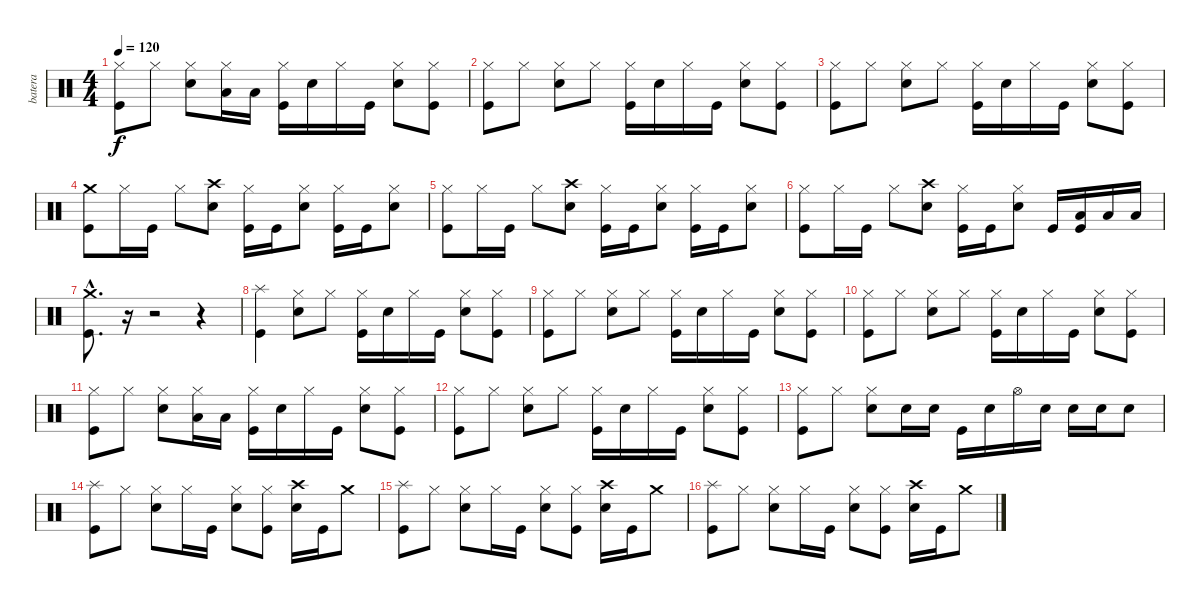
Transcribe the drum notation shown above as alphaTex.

\track ("batera" "batera") {instrument percussion}
\staff {score}
\articulation defaults
\ts (4 4)
\tempo 120
\clef neutral
\ks c
("Hi-Hat (closed)" "Kick (hit)").8{dy f} "Hi-Hat (closed)".8 ("Hi-Hat (closed)" "Snare (hit) 2").8 ("Hi-Hat (closed)" "Low Tom (hit)").16 "Low Tom (hit)".16 ("Hi-Hat (closed)" "Kick (hit)").16 "Snare (hit) 2".16 "Hi-Hat (closed)".16 "Kick (hit)".16 ("Hi-Hat (closed)" "Snare (hit) 2").8 ("Hi-Hat (closed)" "Kick (hit)").8 |
("Hi-Hat (closed)" "Kick (hit)").8 "Hi-Hat (closed)".8 ("Hi-Hat (closed)" "Snare (hit) 2").8 "Hi-Hat (closed)".8 ("Hi-Hat (closed)" "Kick (hit)").16 "Snare (hit) 2".16 "Hi-Hat (closed)".16 "Kick (hit)".16 ("Hi-Hat (closed)" "Snare (hit) 2").8 ("Hi-Hat (closed)" "Kick (hit)").8 |
("Hi-Hat (closed)" "Kick (hit)").8 "Hi-Hat (closed)".8 ("Hi-Hat (closed)" "Snare (hit) 2").8 "Hi-Hat (closed)".8 ("Hi-Hat (closed)" "Kick (hit)").16 "Snare (hit) 2".16 "Hi-Hat (closed)".16 "Kick (hit)".16 ("Hi-Hat (closed)" "Snare (hit) 2").8 ("Hi-Hat (closed)" "Kick (hit)").8 |
("Crash medium (hit)" "Kick (hit)").8 "Hi-Hat (closed)".16 "Kick (hit)".16 "Hi-Hat (closed)".8 ("Crash high (hit)" "Snare (hit) 2").8 ("Hi-Hat (closed)" "Kick (hit)").16 "Kick (hit)".16 ("Hi-Hat (closed)" "Snare (hit) 2").8 ("Hi-Hat (closed)" "Kick (hit)").16 "Kick (hit)".16 ("Hi-Hat (closed)" "Snare (hit) 2").8 |
("Hi-Hat (closed)" "Kick (hit)").8 "Hi-Hat (closed)".16 "Kick (hit)".16 "Hi-Hat (closed)".8 ("Crash high (hit)" "Snare (hit) 2").8 ("Hi-Hat (closed)" "Kick (hit)").16 "Kick (hit)".16 ("Hi-Hat (closed)" "Snare (hit) 2").8 ("Hi-Hat (closed)" "Kick (hit)").16 "Kick (hit)".16 ("Hi-Hat (closed)" "Snare (hit) 2").8 |
("Hi-Hat (closed)" "Kick (hit)").8 "Hi-Hat (closed)".16 "Kick (hit)".16 "Hi-Hat (closed)".8 ("Crash high (hit)" "Snare (hit) 2").8 ("Hi-Hat (closed)" "Kick (hit)").16 "Kick (hit)".16 ("Hi-Hat (closed)" "Snare (hit) 2").8 "Kick (hit)".16 ("Low Tom (hit)" "Kick (hit)").16 "Low Tom (hit)".16 "Low Tom (hit)".16 |
("Crash medium (hit)"{hac} "Kick (hit)"{hac}).8{d} r.16 r.2 r.4 |
("Splash (hit)" "Kick (hit)").4 ("Hi-Hat (closed)" "Snare (hit) 2").8 "Hi-Hat (closed)".8 ("Hi-Hat (closed)" "Kick (hit)").16 "Snare (hit) 2".16 "Hi-Hat (closed)".16 "Kick (hit)".16 ("Hi-Hat (closed)" "Snare (hit) 2").8 ("Hi-Hat (closed)" "Kick (hit)").8 |
("Hi-Hat (closed)" "Kick (hit)").8 "Hi-Hat (closed)".8 ("Hi-Hat (closed)" "Snare (hit) 2").8 "Hi-Hat (closed)".8 ("Hi-Hat (closed)" "Kick (hit)").16 "Snare (hit) 2".16 "Hi-Hat (closed)".16 "Kick (hit)".16 ("Hi-Hat (closed)" "Snare (hit) 2").8 ("Hi-Hat (closed)" "Kick (hit)").8 |
("Hi-Hat (closed)" "Kick (hit)").8 "Hi-Hat (closed)".8 ("Hi-Hat (closed)" "Snare (hit) 2").8 "Hi-Hat (closed)".8 ("Hi-Hat (closed)" "Kick (hit)").16 "Snare (hit) 2".16 "Hi-Hat (closed)".16 "Kick (hit)".16 ("Hi-Hat (closed)" "Snare (hit) 2").8 ("Hi-Hat (closed)" "Kick (hit)").8 |
("Hi-Hat (closed)" "Kick (hit)").8 "Hi-Hat (closed)".8 ("Hi-Hat (closed)" "Snare (hit) 2").8 ("Hi-Hat (closed)" "Low Tom (hit)").16 "Low Tom (hit)".16 ("Hi-Hat (closed)" "Kick (hit)").16 "Snare (hit) 2".16 "Hi-Hat (closed)".16 "Kick (hit)".16 ("Hi-Hat (closed)" "Snare (hit) 2").8 ("Hi-Hat (closed)" "Kick (hit)").8 |
("Hi-Hat (closed)" "Kick (hit)").8 "Hi-Hat (closed)".8 ("Hi-Hat (closed)" "Snare (hit) 2").8 "Hi-Hat (closed)".8 ("Hi-Hat (closed)" "Kick (hit)").16 "Snare (hit) 2".16 "Hi-Hat (closed)".16 "Kick (hit)".16 ("Hi-Hat (closed)" "Snare (hit) 2").8 ("Hi-Hat (closed)" "Kick (hit)").8 |
("Hi-Hat (closed)" "Kick (hit)").8 "Hi-Hat (closed)".8 ("Hi-Hat (closed)" "Snare (hit) 2").8 "Snare (hit) 2".16 "Snare (hit) 2".16 "Kick (hit)".16 "Snare (hit) 2".16 "Hi-Hat (open)".16 "Snare (hit) 2".16 "Snare (hit) 2".16 "Snare (hit) 2".16 "Snare (hit) 2".8 |
("Splash (hit)" "Kick (hit)").8 "Hi-Hat (closed)".8 ("Hi-Hat (closed)" "Snare (hit) 2").8 "Hi-Hat (closed)".16 "Kick (hit)".16 ("Hi-Hat (closed)" "Snare (hit) 2").8 ("Hi-Hat (closed)" "Kick (hit)").8 ("Crash high (hit)" "Snare (hit) 2").16 "Kick (hit)".16 "Crash medium (hit)".8 |
("Splash (hit)" "Kick (hit)").8 "Hi-Hat (closed)".8 ("Hi-Hat (closed)" "Snare (hit) 2").8 "Hi-Hat (closed)".16 "Kick (hit)".16 ("Hi-Hat (closed)" "Snare (hit) 2").8 ("Hi-Hat (closed)" "Kick (hit)").8 ("Crash high (hit)" "Snare (hit) 2").16 "Kick (hit)".16 "Crash medium (hit)".8 |
("Splash (hit)" "Kick (hit)").8 "Hi-Hat (closed)".8 ("Hi-Hat (closed)" "Snare (hit) 2").8 "Hi-Hat (closed)".16 "Kick (hit)".16 ("Hi-Hat (closed)" "Snare (hit) 2").8 ("Hi-Hat (closed)" "Kick (hit)").8 ("Crash high (hit)" "Snare (hit) 2").16 "Kick (hit)".16 "Crash medium (hit)".8
